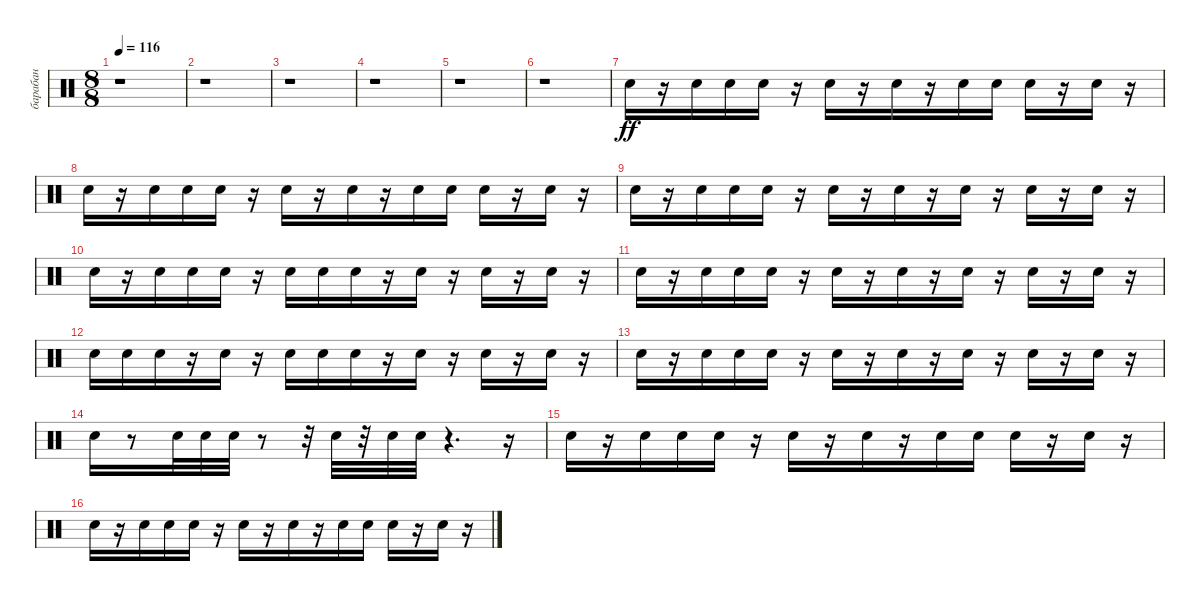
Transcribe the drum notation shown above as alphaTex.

\track ("барабан" "барабан") {instrument percussion}
\staff {score}
\articulation defaults
\ts (8 8)
\tempo 116
\clef neutral
\ks c
r.1{dy ff} |
r.1 |
r.1 |
r.1 |
r.1 |
r.1 |
"Snare (hit) 2".16 r.16 "Snare (hit) 2".16 "Snare (hit) 2".16 "Snare (hit) 2".16 r.16 "Snare (hit) 2".16 r.16 "Snare (hit) 2".16 r.16 "Snare (hit) 2".16 "Snare (hit) 2".16 "Snare (hit) 2".16 r.16 "Snare (hit) 2".16 r.16 |
"Snare (hit) 2".16 r.16 "Snare (hit) 2".16 "Snare (hit) 2".16 "Snare (hit) 2".16 r.16 "Snare (hit) 2".16 r.16 "Snare (hit) 2".16 r.16 "Snare (hit) 2".16 "Snare (hit) 2".16 "Snare (hit) 2".16 r.16 "Snare (hit) 2".16 r.16 |
"Snare (hit) 2".16 r.16 "Snare (hit) 2".16 "Snare (hit) 2".16 "Snare (hit) 2".16 r.16 "Snare (hit) 2".16 r.16 "Snare (hit) 2".16 r.16 "Snare (hit) 2".16 r.16 "Snare (hit) 2".16 r.16 "Snare (hit) 2".16 r.16 |
"Snare (hit) 2".16 r.16 "Snare (hit) 2".16 "Snare (hit) 2".16 "Snare (hit) 2".16 r.16 "Snare (hit) 2".16 "Snare (hit) 2".16 "Snare (hit) 2".16 r.16 "Snare (hit) 2".16 r.16 "Snare (hit) 2".16 r.16 "Snare (hit) 2".16 r.16 |
"Snare (hit) 2".16 r.16 "Snare (hit) 2".16 "Snare (hit) 2".16 "Snare (hit) 2".16 r.16 "Snare (hit) 2".16 r.16 "Snare (hit) 2".16 r.16 "Snare (hit) 2".16 r.16 "Snare (hit) 2".16 r.16 "Snare (hit) 2".16 r.16 |
"Snare (hit) 2".16 "Snare (hit) 2".16 "Snare (hit) 2".16 r.16 "Snare (hit) 2".16 r.16 "Snare (hit) 2".16 "Snare (hit) 2".16 "Snare (hit) 2".16 r.16 "Snare (hit) 2".16 r.16 "Snare (hit) 2".16 r.16 "Snare (hit) 2".16 r.16 |
"Snare (hit) 2".16 r.16 "Snare (hit) 2".16 "Snare (hit) 2".16 "Snare (hit) 2".16 r.16 "Snare (hit) 2".16 r.16 "Snare (hit) 2".16 r.16 "Snare (hit) 2".16 r.16 "Snare (hit) 2".16 r.16 "Snare (hit) 2".16 r.16 |
"Snare (hit) 2".16 r.8 "Snare (hit) 2".32 "Snare (hit) 2".32 "Snare (hit) 2".32 r.8 r.32 "Snare (hit) 2".32 r.32 "Snare (hit) 2".32 "Snare (hit) 2".32 r.4{d} r.16 |
"Snare (hit) 2".16 r.16 "Snare (hit) 2".16 "Snare (hit) 2".16 "Snare (hit) 2".16 r.16 "Snare (hit) 2".16 r.16 "Snare (hit) 2".16 r.16 "Snare (hit) 2".16 "Snare (hit) 2".16 "Snare (hit) 2".16 r.16 "Snare (hit) 2".16 r.16 |
"Snare (hit) 2".16 r.16 "Snare (hit) 2".16 "Snare (hit) 2".16 "Snare (hit) 2".16 r.16 "Snare (hit) 2".16 r.16 "Snare (hit) 2".16 r.16 "Snare (hit) 2".16 "Snare (hit) 2".16 "Snare (hit) 2".16 r.16 "Snare (hit) 2".16 r.16
